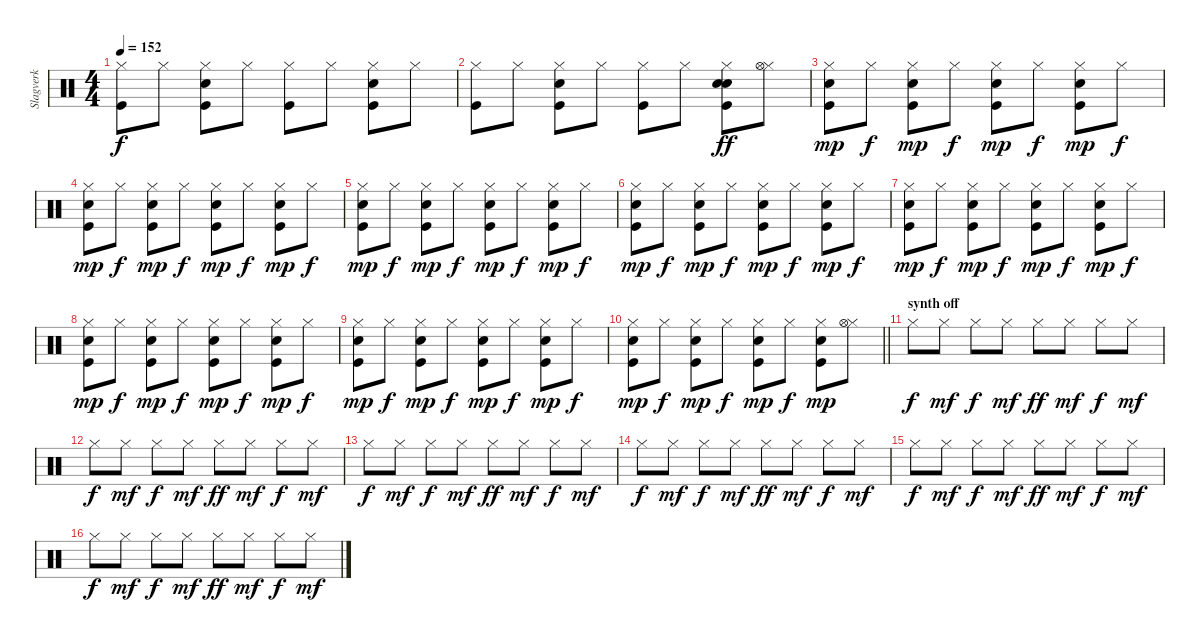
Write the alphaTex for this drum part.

\track ("Slagverk" "Slagverk") {instrument percussion}
\staff {score}
\articulation defaults
\ts (4 4)
\tempo 152
\clef neutral
\ks c
("Kick (hit)" "Hi-Hat (closed)").8{dy f} "Hi-Hat (closed)".8 ("Kick (hit)" "Hi-Hat (closed)" "Snare (hit) 2").8 "Hi-Hat (closed)".8 ("Kick (hit)" "Hi-Hat (closed)").8 "Hi-Hat (closed)".8 ("Kick (hit)" "Hi-Hat (closed)" "Snare (hit) 2").8 "Hi-Hat (closed)".8 |
("Kick (hit)" "Hi-Hat (closed)").8 "Hi-Hat (closed)".8 ("Kick (hit)" "Hi-Hat (closed)" "Snare (hit) 2").8 "Hi-Hat (closed)".8 ("Kick (hit)" "Hi-Hat (closed)").8 "Hi-Hat (closed)".8 ("Kick (hit)" "Hi-Hat (closed)" "Electric Snare (hit)" "Snare (hit) 2").8{dy ff} ("Hi-Hat (closed)" "Hi-Hat (open)").8 |
("Kick (hit)" "Hi-Hat (closed)" "Snare (hit) 2").8{dy mp} "Hi-Hat (closed)".8{dy f} ("Kick (hit)" "Hi-Hat (closed)" "Snare (hit) 2").8{dy mp} "Hi-Hat (closed)".8{dy f} ("Kick (hit)" "Hi-Hat (closed)" "Snare (hit) 2").8{dy mp} "Hi-Hat (closed)".8{dy f} ("Kick (hit)" "Hi-Hat (closed)" "Snare (hit) 2").8{dy mp} "Hi-Hat (closed)".8{dy f} |
("Kick (hit)" "Hi-Hat (closed)" "Snare (hit) 2").8{dy mp} "Hi-Hat (closed)".8{dy f} ("Kick (hit)" "Hi-Hat (closed)" "Snare (hit) 2").8{dy mp} "Hi-Hat (closed)".8{dy f} ("Kick (hit)" "Hi-Hat (closed)" "Snare (hit) 2").8{dy mp} "Hi-Hat (closed)".8{dy f} ("Kick (hit)" "Hi-Hat (closed)" "Snare (hit) 2").8{dy mp} "Hi-Hat (closed)".8{dy f} |
("Kick (hit)" "Hi-Hat (closed)" "Snare (hit) 2").8{dy mp} "Hi-Hat (closed)".8{dy f} ("Kick (hit)" "Hi-Hat (closed)" "Snare (hit) 2").8{dy mp} "Hi-Hat (closed)".8{dy f} ("Kick (hit)" "Hi-Hat (closed)" "Snare (hit) 2").8{dy mp} "Hi-Hat (closed)".8{dy f} ("Kick (hit)" "Hi-Hat (closed)" "Snare (hit) 2").8{dy mp} "Hi-Hat (closed)".8{dy f} |
("Kick (hit)" "Hi-Hat (closed)" "Snare (hit) 2").8{dy mp} "Hi-Hat (closed)".8{dy f} ("Kick (hit)" "Hi-Hat (closed)" "Snare (hit) 2").8{dy mp} "Hi-Hat (closed)".8{dy f} ("Kick (hit)" "Hi-Hat (closed)" "Snare (hit) 2").8{dy mp} "Hi-Hat (closed)".8{dy f} ("Kick (hit)" "Hi-Hat (closed)" "Snare (hit) 2").8{dy mp} "Hi-Hat (closed)".8{dy f} |
("Kick (hit)" "Hi-Hat (closed)" "Snare (hit) 2").8{dy mp} "Hi-Hat (closed)".8{dy f} ("Kick (hit)" "Hi-Hat (closed)" "Snare (hit) 2").8{dy mp} "Hi-Hat (closed)".8{dy f} ("Kick (hit)" "Hi-Hat (closed)" "Snare (hit) 2").8{dy mp} "Hi-Hat (closed)".8{dy f} ("Kick (hit)" "Hi-Hat (closed)" "Snare (hit) 2").8{dy mp} "Hi-Hat (closed)".8{dy f} |
("Kick (hit)" "Hi-Hat (closed)" "Snare (hit) 2").8{dy mp} "Hi-Hat (closed)".8{dy f} ("Kick (hit)" "Hi-Hat (closed)" "Snare (hit) 2").8{dy mp} "Hi-Hat (closed)".8{dy f} ("Kick (hit)" "Hi-Hat (closed)" "Snare (hit) 2").8{dy mp} "Hi-Hat (closed)".8{dy f} ("Kick (hit)" "Hi-Hat (closed)" "Snare (hit) 2").8{dy mp} "Hi-Hat (closed)".8{dy f} |
("Kick (hit)" "Hi-Hat (closed)" "Snare (hit) 2").8{dy mp} "Hi-Hat (closed)".8{dy f} ("Kick (hit)" "Hi-Hat (closed)" "Snare (hit) 2").8{dy mp} "Hi-Hat (closed)".8{dy f} ("Kick (hit)" "Hi-Hat (closed)" "Snare (hit) 2").8{dy mp} "Hi-Hat (closed)".8{dy f} ("Kick (hit)" "Hi-Hat (closed)" "Snare (hit) 2").8{dy mp} "Hi-Hat (closed)".8{dy f} |
\barLineRight lightlight
("Kick (hit)" "Hi-Hat (closed)" "Snare (hit) 2").8{dy mp} "Hi-Hat (closed)".8{dy f} ("Kick (hit)" "Hi-Hat (closed)" "Snare (hit) 2").8{dy mp} "Hi-Hat (closed)".8{dy f} ("Kick (hit)" "Hi-Hat (closed)" "Snare (hit) 2").8{dy mp} "Hi-Hat (closed)".8{dy f} ("Kick (hit)" "Hi-Hat (closed)" "Snare (hit) 2").8{dy mp} ("Hi-Hat (closed)" "Hi-Hat (open)").8 |
\section ("" "synth off")
"Hi-Hat (closed)".8{dy f} "Hi-Hat (closed)".8{dy mf} "Hi-Hat (closed)".8{dy f} "Hi-Hat (closed)".8{dy mf} "Hi-Hat (closed)".8{dy ff} "Hi-Hat (closed)".8{dy mf} "Hi-Hat (closed)".8{dy f} "Hi-Hat (closed)".8{dy mf} |
"Hi-Hat (closed)".8{dy f} "Hi-Hat (closed)".8{dy mf} "Hi-Hat (closed)".8{dy f} "Hi-Hat (closed)".8{dy mf} "Hi-Hat (closed)".8{dy ff} "Hi-Hat (closed)".8{dy mf} "Hi-Hat (closed)".8{dy f} "Hi-Hat (closed)".8{dy mf} |
"Hi-Hat (closed)".8{dy f} "Hi-Hat (closed)".8{dy mf} "Hi-Hat (closed)".8{dy f} "Hi-Hat (closed)".8{dy mf} "Hi-Hat (closed)".8{dy ff} "Hi-Hat (closed)".8{dy mf} "Hi-Hat (closed)".8{dy f} "Hi-Hat (closed)".8{dy mf} |
"Hi-Hat (closed)".8{dy f} "Hi-Hat (closed)".8{dy mf} "Hi-Hat (closed)".8{dy f} "Hi-Hat (closed)".8{dy mf} "Hi-Hat (closed)".8{dy ff} "Hi-Hat (closed)".8{dy mf} "Hi-Hat (closed)".8{dy f} "Hi-Hat (closed)".8{dy mf} |
"Hi-Hat (closed)".8{dy f} "Hi-Hat (closed)".8{dy mf} "Hi-Hat (closed)".8{dy f} "Hi-Hat (closed)".8{dy mf} "Hi-Hat (closed)".8{dy ff} "Hi-Hat (closed)".8{dy mf} "Hi-Hat (closed)".8{dy f} "Hi-Hat (closed)".8{dy mf} |
"Hi-Hat (closed)".8{dy f} "Hi-Hat (closed)".8{dy mf} "Hi-Hat (closed)".8{dy f} "Hi-Hat (closed)".8{dy mf} "Hi-Hat (closed)".8{dy ff} "Hi-Hat (closed)".8{dy mf} "Hi-Hat (closed)".8{dy f} "Hi-Hat (closed)".8{dy mf}
